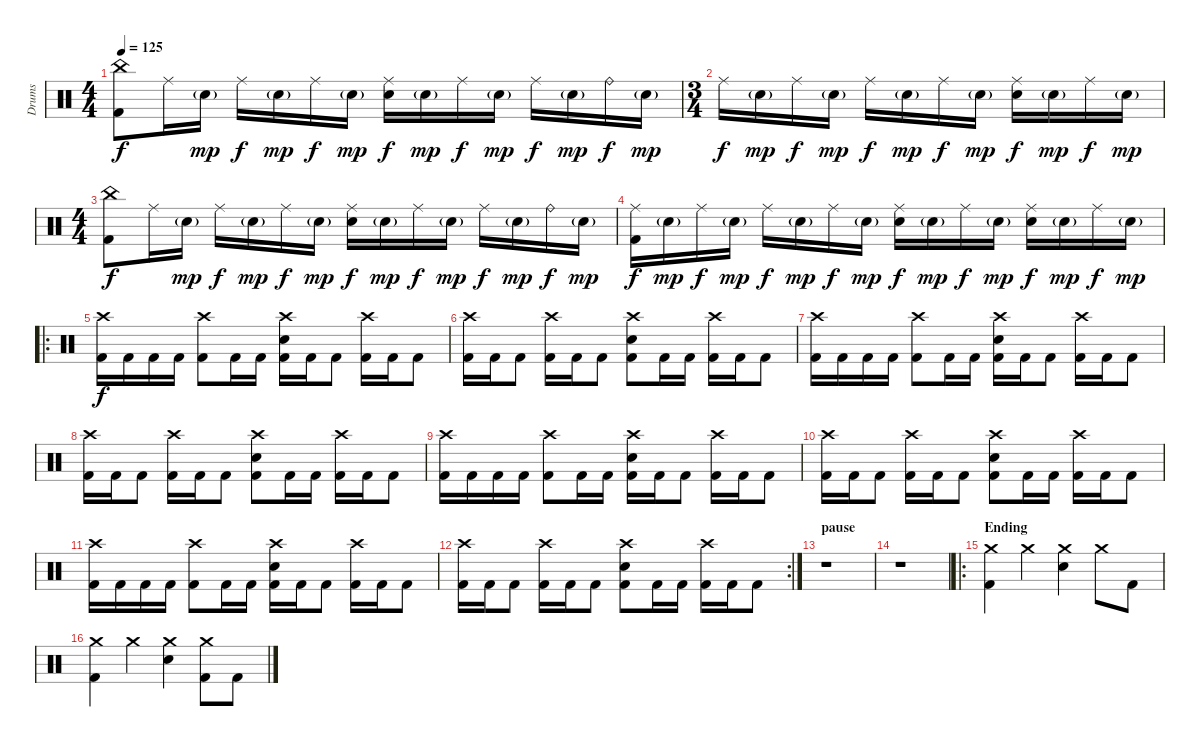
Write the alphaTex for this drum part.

\track ("Drums" "Drums") {instrument percussion}
\staff {score}
\articulation defaults
\ts (4 4)
\tempo 125
\clef neutral
\ks c
("China (hit)" "Kick (hit) 2").8{dy f} "Ride (middle)".16 "Electric Snare (hit)"{g}.16{dy mp} "Ride (middle)".16{dy f} "Electric Snare (hit)"{g}.16{dy mp} "Ride (middle)".16{dy f} "Electric Snare (hit)"{g}.16{dy mp} ("Ride (middle)" "Electric Snare (hit)").16{dy f} "Electric Snare (hit)"{g}.16{dy mp} "Ride (middle)".16{dy f} "Electric Snare (hit)"{g}.16{dy mp} "Ride (middle)".16{dy f} "Electric Snare (hit)"{g}.16{dy mp} "Ride (bell)".16{dy f} "Electric Snare (hit)"{g}.16{dy mp} |
\ts (3 4)
"Ride (middle)".16{dy f} "Electric Snare (hit)"{g}.16{dy mp} "Ride (middle)".16{dy f} "Electric Snare (hit)"{g}.16{dy mp} "Ride (middle)".16{dy f} "Electric Snare (hit)"{g}.16{dy mp} "Ride (middle)".16{dy f} "Electric Snare (hit)"{g}.16{dy mp} ("Ride (middle)" "Electric Snare (hit)").16{dy f} "Electric Snare (hit)"{g}.16{dy mp} "Ride (middle)".16{dy f} "Electric Snare (hit)"{g}.16{dy mp} |
\ts (4 4)
("China (hit)" "Kick (hit) 2").8{dy f} "Ride (middle)".16 "Electric Snare (hit)"{g}.16{dy mp} "Ride (middle)".16{dy f} "Electric Snare (hit)"{g}.16{dy mp} "Ride (middle)".16{dy f} "Electric Snare (hit)"{g}.16{dy mp} ("Ride (middle)" "Electric Snare (hit)").16{dy f} "Electric Snare (hit)"{g}.16{dy mp} "Ride (middle)".16{dy f} "Electric Snare (hit)"{g}.16{dy mp} "Ride (middle)".16{dy f} "Electric Snare (hit)"{g}.16{dy mp} "Ride (bell)".16{dy f} "Electric Snare (hit)"{g}.16{dy mp} |
("Ride (middle)" "Kick (hit) 2").16{dy f} "Electric Snare (hit)"{g}.16{dy mp} "Ride (middle)".16{dy f} "Electric Snare (hit)"{g}.16{dy mp} "Ride (middle)".16{dy f} "Electric Snare (hit)"{g}.16{dy mp} "Ride (middle)".16{dy f} "Electric Snare (hit)"{g}.16{dy mp} ("Ride (middle)" "Electric Snare (hit)").16{dy f} "Electric Snare (hit)"{g}.16{dy mp} "Ride (middle)".16{dy f} "Electric Snare (hit)"{g}.16{dy mp} ("Ride (middle)" "Electric Snare (hit)").16{dy f} "Electric Snare (hit)"{g}.16{dy mp} "Ride (middle)".16{dy f} "Electric Snare (hit)"{g}.16{dy mp} |
\ro
("Crash high (hit)" "Kick (hit) 2").16{dy f} "Kick (hit) 2".16 "Kick (hit) 2".16 "Kick (hit) 2".16 ("Crash high (hit)" "Kick (hit) 2").8 "Kick (hit) 2".16 "Kick (hit) 2".16 ("Crash high (hit)" "Electric Snare (hit)" "Kick (hit) 2").16 "Kick (hit) 2".16 "Kick (hit) 2".8 ("Crash high (hit)" "Kick (hit) 2").16 "Kick (hit) 2".16 "Kick (hit) 2".8 |
("Crash high (hit)" "Kick (hit) 2").16 "Kick (hit) 2".16 "Kick (hit) 2".8 ("Crash high (hit)" "Kick (hit) 2").16 "Kick (hit) 2".16 "Kick (hit) 2".8 ("Crash high (hit)" "Electric Snare (hit)" "Kick (hit) 2").8 "Kick (hit) 2".16 "Kick (hit) 2".16 ("Crash high (hit)" "Kick (hit) 2").16 "Kick (hit) 2".16 "Kick (hit) 2".8 |
("Crash high (hit)" "Kick (hit) 2").16 "Kick (hit) 2".16 "Kick (hit) 2".16 "Kick (hit) 2".16 ("Crash high (hit)" "Kick (hit) 2").8 "Kick (hit) 2".16 "Kick (hit) 2".16 ("Crash high (hit)" "Electric Snare (hit)" "Kick (hit) 2").16 "Kick (hit) 2".16 "Kick (hit) 2".8 ("Crash high (hit)" "Kick (hit) 2").16 "Kick (hit) 2".16 "Kick (hit) 2".8 |
("Crash high (hit)" "Kick (hit) 2").16 "Kick (hit) 2".16 "Kick (hit) 2".8 ("Crash high (hit)" "Kick (hit) 2").16 "Kick (hit) 2".16 "Kick (hit) 2".8 ("Crash high (hit)" "Electric Snare (hit)" "Kick (hit) 2").8 "Kick (hit) 2".16 "Kick (hit) 2".16 ("Crash high (hit)" "Kick (hit) 2").16 "Kick (hit) 2".16 "Kick (hit) 2".8 |
("Crash high (hit)" "Kick (hit) 2").16 "Kick (hit) 2".16 "Kick (hit) 2".16 "Kick (hit) 2".16 ("Crash high (hit)" "Kick (hit) 2").8 "Kick (hit) 2".16 "Kick (hit) 2".16 ("Crash high (hit)" "Electric Snare (hit)" "Kick (hit) 2").16 "Kick (hit) 2".16 "Kick (hit) 2".8 ("Crash high (hit)" "Kick (hit) 2").16 "Kick (hit) 2".16 "Kick (hit) 2".8 |
("Crash high (hit)" "Kick (hit) 2").16 "Kick (hit) 2".16 "Kick (hit) 2".8 ("Crash high (hit)" "Kick (hit) 2").16 "Kick (hit) 2".16 "Kick (hit) 2".8 ("Crash high (hit)" "Electric Snare (hit)" "Kick (hit) 2").8 "Kick (hit) 2".16 "Kick (hit) 2".16 ("Crash high (hit)" "Kick (hit) 2").16 "Kick (hit) 2".16 "Kick (hit) 2".8 |
("Crash high (hit)" "Kick (hit) 2").16 "Kick (hit) 2".16 "Kick (hit) 2".16 "Kick (hit) 2".16 ("Crash high (hit)" "Kick (hit) 2").8 "Kick (hit) 2".16 "Kick (hit) 2".16 ("Crash high (hit)" "Electric Snare (hit)" "Kick (hit) 2").16 "Kick (hit) 2".16 "Kick (hit) 2".8 ("Crash high (hit)" "Kick (hit) 2").16 "Kick (hit) 2".16 "Kick (hit) 2".8 |
\rc 2
("Crash high (hit)" "Kick (hit) 2").16 "Kick (hit) 2".16 "Kick (hit) 2".8 ("Crash high (hit)" "Kick (hit) 2").16 "Kick (hit) 2".16 "Kick (hit) 2".8 ("Crash high (hit)" "Electric Snare (hit)" "Kick (hit) 2").8 "Kick (hit) 2".16 "Kick (hit) 2".16 ("Crash high (hit)" "Kick (hit) 2").16 "Kick (hit) 2".16 "Kick (hit) 2".8 |
\section ("" "pause")
r.1 |
r.1 |
\ro
\section ("" "Ending")
("Crash medium (hit)" "Kick (hit) 2").4 "Crash medium (hit)".4 ("Crash medium (hit)" "Electric Snare (hit)").4 "Crash medium (hit)".8 "Kick (hit) 2".8 |
("Crash medium (hit)" "Kick (hit) 2").4 "Crash medium (hit)".4 ("Crash medium (hit)" "Electric Snare (hit)").4 ("Crash medium (hit)" "Kick (hit) 2").8 "Kick (hit) 2".8
